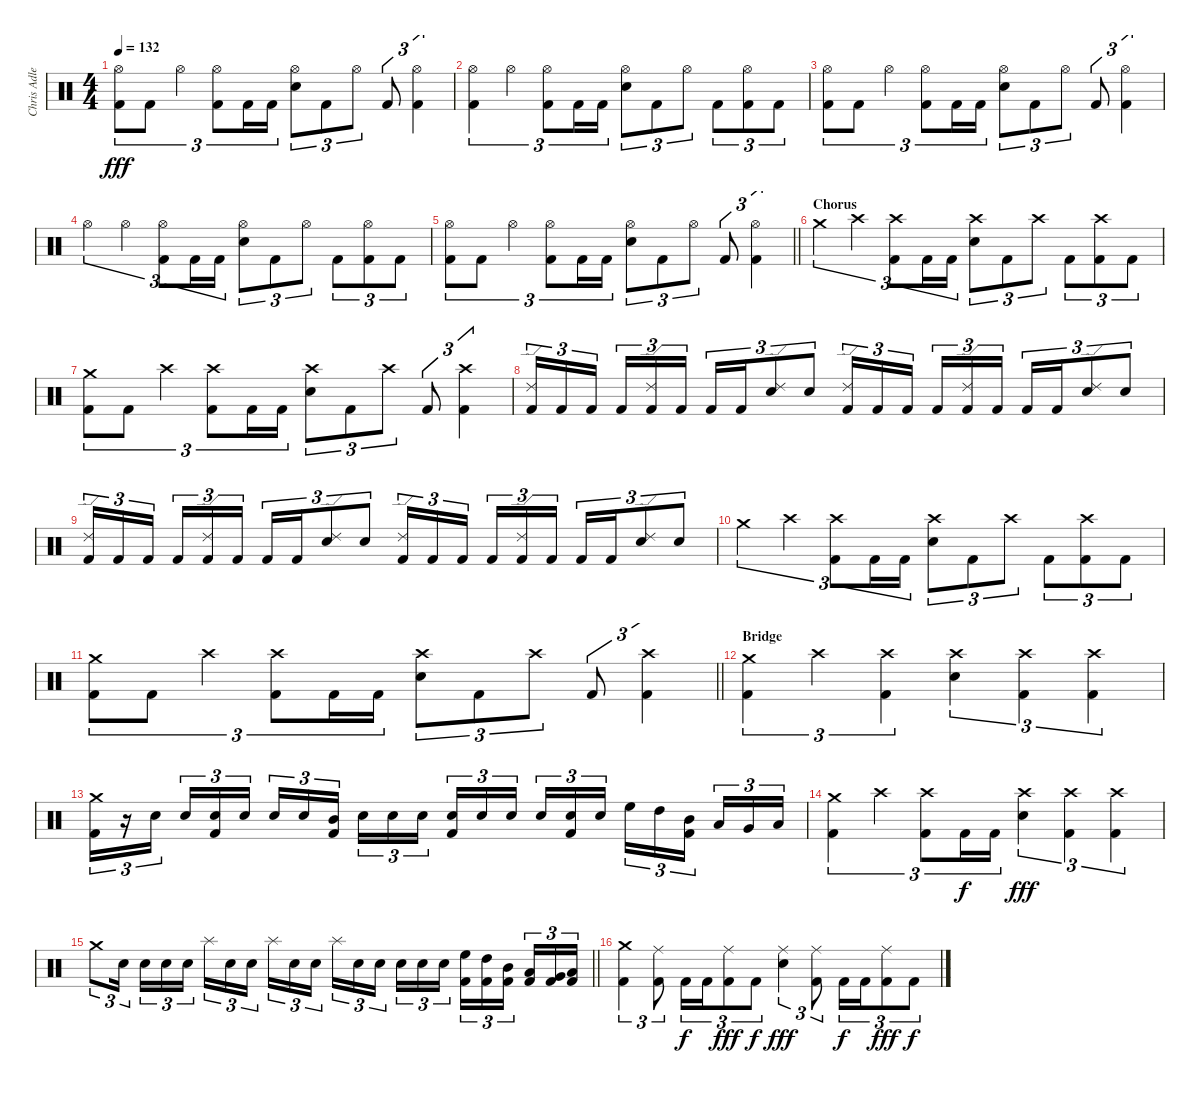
\track ("Chris Adler" "Chris Adle") {instrument percussion}
\staff {score}
\articulation defaults
\ts (4 4)
\tempo 132
\clef neutral
\ks c
("Hi-Hat (open)" "Kick (hit) 2").8{tu (3 2) dy fff} "Kick (hit) 2".8{tu (3 2)} "Hi-Hat (open)".4{tu (3 2)} ("Hi-Hat (open)" "Kick (hit) 2").8{tu (3 2)} "Kick (hit) 2".16{tu (3 2)} "Kick (hit) 2".16{tu (3 2)} ("Hi-Hat (open)" "Electric Snare (hit)").8{tu (3 2)} "Kick (hit) 2".8{tu (3 2)} "Hi-Hat (open)".8{tu (3 2)} "Kick (hit) 2".8{tu (3 2)} ("Hi-Hat (open)" "Kick (hit) 2").4{tu (3 2)} |
("Hi-Hat (open)" "Kick (hit) 2").4{tu (3 2)} "Hi-Hat (open)".4{tu (3 2)} ("Hi-Hat (open)" "Kick (hit) 2").8{tu (3 2)} "Kick (hit) 2".16{tu (3 2)} "Kick (hit) 2".16{tu (3 2)} ("Hi-Hat (open)" "Electric Snare (hit)").8{tu (3 2)} "Kick (hit) 2".8{tu (3 2)} "Hi-Hat (open)".8{tu (3 2)} "Kick (hit) 2".8{tu (3 2)} ("Hi-Hat (open)" "Kick (hit) 2").8{tu (3 2)} "Kick (hit) 2".8{tu (3 2)} |
("Hi-Hat (open)" "Kick (hit) 2").8{tu (3 2)} "Kick (hit) 2".8{tu (3 2)} "Hi-Hat (open)".4{tu (3 2)} ("Hi-Hat (open)" "Kick (hit) 2").8{tu (3 2)} "Kick (hit) 2".16{tu (3 2)} "Kick (hit) 2".16{tu (3 2)} ("Hi-Hat (open)" "Electric Snare (hit)").8{tu (3 2)} "Kick (hit) 2".8{tu (3 2)} "Hi-Hat (open)".8{tu (3 2)} "Kick (hit) 2".8{tu (3 2)} ("Hi-Hat (open)" "Kick (hit) 2").4{tu (3 2)} |
"Hi-Hat (open)".4{tu (3 2)} "Hi-Hat (open)".4{tu (3 2)} ("Hi-Hat (open)" "Kick (hit) 2").8{tu (3 2)} "Kick (hit) 2".16{tu (3 2)} "Kick (hit) 2".16{tu (3 2)} ("Hi-Hat (open)" "Electric Snare (hit)").8{tu (3 2)} "Kick (hit) 2".8{tu (3 2)} "Hi-Hat (open)".8{tu (3 2)} "Kick (hit) 2".8{tu (3 2)} ("Hi-Hat (open)" "Kick (hit) 2").8{tu (3 2)} "Kick (hit) 2".8{tu (3 2)} |
\barLineRight lightlight
("Hi-Hat (open)" "Kick (hit) 2").8{tu (3 2)} "Kick (hit) 2".8{tu (3 2)} "Hi-Hat (open)".4{tu (3 2)} ("Hi-Hat (open)" "Kick (hit) 2").8{tu (3 2)} "Kick (hit) 2".16{tu (3 2)} "Kick (hit) 2".16{tu (3 2)} ("Hi-Hat (open)" "Electric Snare (hit)").8{tu (3 2)} "Kick (hit) 2".8{tu (3 2)} "Hi-Hat (open)".8{tu (3 2)} "Kick (hit) 2".8{tu (3 2)} ("Hi-Hat (open)" "Kick (hit) 2").4{tu (3 2)} |
\section ("" "Chorus")
"Crash medium (hit)".4{tu (3 2)} "Crash high (hit)".4{tu (3 2)} ("Crash high (hit)" "Kick (hit) 2").8{tu (3 2)} "Kick (hit) 2".16{tu (3 2)} "Kick (hit) 2".16{tu (3 2)} ("Crash high (hit)" "Electric Snare (hit)").8{tu (3 2)} "Kick (hit) 2".8{tu (3 2)} "Crash high (hit)".8{tu (3 2)} "Kick (hit) 2".8{tu (3 2)} ("Crash high (hit)" "Kick (hit) 2").8{tu (3 2)} "Kick (hit) 2".8{tu (3 2)} |
("Crash medium (hit)" "Kick (hit) 2").8{tu (3 2)} "Kick (hit) 2".8{tu (3 2)} "Crash high (hit)".4{tu (3 2)} ("Crash high (hit)" "Kick (hit) 2").8{tu (3 2)} "Kick (hit) 2".16{tu (3 2)} "Kick (hit) 2".16{tu (3 2)} ("Crash high (hit)" "Electric Snare (hit)").8{tu (3 2)} "Kick (hit) 2".8{tu (3 2)} "Crash high (hit)".8{tu (3 2)} "Kick (hit) 2".8{tu (3 2)} ("Crash high (hit)" "Kick (hit) 2").4{tu (3 2)} |
("Ride (edge) 2" "Kick (hit) 2").16{tu (3 2)} "Kick (hit) 2".16{tu (3 2)} "Kick (hit) 2".16{tu (3 2) beam splitsecondary} "Kick (hit) 2".16{tu (3 2)} ("Ride (edge) 2" "Kick (hit) 2").16{tu (3 2)} "Kick (hit) 2".16{tu (3 2)} "Kick (hit) 2".16{tu (3 2)} "Kick (hit) 2".16{tu (3 2)} ("Ride (edge) 2" "Electric Snare (hit)").8{tu (3 2)} "Electric Snare (hit)".8{tu (3 2)} ("Ride (edge) 2" "Kick (hit) 2").16{tu (3 2)} "Kick (hit) 2".16{tu (3 2)} "Kick (hit) 2".16{tu (3 2) beam splitsecondary} "Kick (hit) 2".16{tu (3 2)} ("Ride (edge) 2" "Kick (hit) 2").16{tu (3 2)} "Kick (hit) 2".16{tu (3 2)} "Kick (hit) 2".16{tu (3 2)} "Kick (hit) 2".16{tu (3 2)} ("Ride (edge) 2" "Electric Snare (hit)").8{tu (3 2)} "Electric Snare (hit)".8{tu (3 2)} |
("Ride (edge) 2" "Kick (hit) 2").16{tu (3 2)} "Kick (hit) 2".16{tu (3 2)} "Kick (hit) 2".16{tu (3 2) beam splitsecondary} "Kick (hit) 2".16{tu (3 2)} ("Ride (edge) 2" "Kick (hit) 2").16{tu (3 2)} "Kick (hit) 2".16{tu (3 2)} "Kick (hit) 2".16{tu (3 2)} "Kick (hit) 2".16{tu (3 2)} ("Ride (edge) 2" "Electric Snare (hit)").8{tu (3 2)} "Electric Snare (hit)".8{tu (3 2)} ("Ride (edge) 2" "Kick (hit) 2").16{tu (3 2)} "Kick (hit) 2".16{tu (3 2)} "Kick (hit) 2".16{tu (3 2) beam splitsecondary} "Kick (hit) 2".16{tu (3 2)} ("Ride (edge) 2" "Kick (hit) 2").16{tu (3 2)} "Kick (hit) 2".16{tu (3 2)} "Kick (hit) 2".16{tu (3 2)} "Kick (hit) 2".16{tu (3 2)} ("Ride (edge) 2" "Electric Snare (hit)").8{tu (3 2)} "Electric Snare (hit)".8{tu (3 2)} |
"Crash medium (hit)".4{tu (3 2)} "Crash high (hit)".4{tu (3 2)} ("Crash high (hit)" "Kick (hit) 2").8{tu (3 2)} "Kick (hit) 2".16{tu (3 2)} "Kick (hit) 2".16{tu (3 2)} ("Crash high (hit)" "Electric Snare (hit)").8{tu (3 2)} "Kick (hit) 2".8{tu (3 2)} "Crash high (hit)".8{tu (3 2)} "Kick (hit) 2".8{tu (3 2)} ("Crash high (hit)" "Kick (hit) 2").8{tu (3 2)} "Kick (hit) 2".8{tu (3 2)} |
\barLineRight lightlight
("Crash medium (hit)" "Kick (hit) 2").8{tu (3 2)} "Kick (hit) 2".8{tu (3 2)} "Crash high (hit)".4{tu (3 2)} ("Crash high (hit)" "Kick (hit) 2").8{tu (3 2)} "Kick (hit) 2".16{tu (3 2)} "Kick (hit) 2".16{tu (3 2)} ("Crash high (hit)" "Electric Snare (hit)").8{tu (3 2)} "Kick (hit) 2".8{tu (3 2)} "Crash high (hit)".8{tu (3 2)} "Kick (hit) 2".8{tu (3 2)} ("Crash high (hit)" "Kick (hit) 2").4{tu (3 2)} |
\section ("" "Bridge")
("Crash medium (hit)" "Kick (hit) 2").4{tu (3 2)} "Crash high (hit)".4{tu (3 2)} ("Crash high (hit)" "Kick (hit) 2").4{tu (3 2)} ("Crash high (hit)" "Electric Snare (hit)").4{tu (3 2)} ("Crash high (hit)" "Kick (hit) 2").4{tu (3 2)} ("Crash high (hit)" "Kick (hit) 2").4{tu (3 2)} |
("Crash medium (hit)" "Kick (hit) 2").16{tu (3 2)} r.16{tu (3 2)} "Electric Snare (hit)".16{tu (3 2) beam splitsecondary} "Electric Snare (hit)".16{tu (3 2)} ("Electric Snare (hit)" "Kick (hit) 2").16{tu (3 2)} "Electric Snare (hit)".16{tu (3 2)} "Electric Snare (hit)".16{tu (3 2)} "Electric Snare (hit)".16{tu (3 2)} ("Mid Tom (hit)" "Kick (hit) 2").16{tu (3 2) beam splitsecondary} "Electric Snare (hit)".16{tu (3 2)} "Electric Snare (hit)".16{tu (3 2)} "Electric Snare (hit)".16{tu (3 2)} ("Electric Snare (hit)" "Kick (hit) 2").16{tu (3 2)} "Electric Snare (hit)".16{tu (3 2)} "Electric Snare (hit)".16{tu (3 2) beam splitsecondary} "Electric Snare (hit)".16{tu (3 2)} ("Electric Snare (hit)" "Kick (hit) 2").16{tu (3 2)} "Electric Snare (hit)".16{tu (3 2)} "High Floor Tom (hit)".16{tu (3 2)} "High Tom (hit)".16{tu (3 2)} ("Mid Tom (hit)" "Kick (hit) 2").16{tu (3 2) beam splitsecondary} "Low Tom (hit)".16{tu (3 2)} "Very Low Tom (hit)".16{tu (3 2)} "Low Floor Tom (hit)".16{tu (3 2)} |
("Crash medium (hit)" "Kick (hit) 2").4{tu (3 2)} "Crash high (hit)".4{tu (3 2)} ("Crash high (hit)" "Kick (hit) 2").8{tu (3 2)} "Kick (hit) 2".16{tu (3 2) dy f} "Kick (hit) 2".16{tu (3 2)} ("Crash high (hit)" "Electric Snare (hit)").4{tu (3 2) dy fff} ("Crash high (hit)" "Kick (hit) 2").4{tu (3 2)} ("Crash high (hit)" "Kick (hit) 2").4{tu (3 2)} |
\barLineRight lightlight "Crash medium (hit)".8{tu (3 2)} "Electric Snare (hit)".16{tu (3 2) beam splitsecondary} "Electric Snare (hit)".16{tu (3 2)} "Electric Snare (hit)".16{tu (3 2)} "Electric Snare (hit)".16{tu (3 2)} "Splash (hit)".16{tu (3 2)} "Electric Snare (hit)".16{tu (3 2)} "Electric Snare (hit)".16{tu (3 2) beam splitsecondary} "Splash (hit)".16{tu (3 2)} "Electric Snare (hit)".16{tu (3 2)} "Electric Snare (hit)".16{tu (3 2)} "Splash (hit)".16{tu (3 2)} "Electric Snare (hit)".16{tu (3 2)} "Electric Snare (hit)".16{tu (3 2) beam splitsecondary} "Electric Snare (hit)".16{tu (3 2)} "Electric Snare (hit)".16{tu (3 2)} "Electric Snare (hit)".16{tu (3 2)}
("High Floor Tom (hit)" "Kick (hit) 2").16{tu (3 2)} ("High Tom (hit)" "Kick (hit) 2").16{tu (3 2)} ("Mid Tom (hit)" "Kick (hit) 2").16{tu (3 2) beam splitsecondary} ("Low Tom (hit)" "Kick (hit) 2").16{tu (3 2)} ("Very Low Tom (hit)" "Kick (hit) 2").16{tu (3 2)} ("Low Floor Tom (hit)" "Kick (hit) 2").16{tu (3 2)} |
("Crash medium (hit)" "Kick (hit) 2").4{tu (3 2)} ("Ride (middle)" "Kick (hit) 2").8{tu (3 2)} "Kick (hit) 2".16{tu (3 2) dy f} "Kick (hit) 2".16{tu (3 2)} ("Ride (middle)" "Kick (hit) 2").8{tu (3 2) dy fff} "Kick (hit) 2".8{tu (3 2) dy f} ("Ride (middle)" "Electric Snare (hit)").4{tu (3 2) dy fff} ("Ride (middle)" "Kick (hit) 2").8{tu (3 2)} "Kick (hit) 2".16{tu (3 2) dy f} "Kick (hit) 2".16{tu (3 2)} ("Ride (middle)" "Kick (hit) 2").8{tu (3 2) dy fff} "Kick (hit) 2".8{tu (3 2) dy f}
